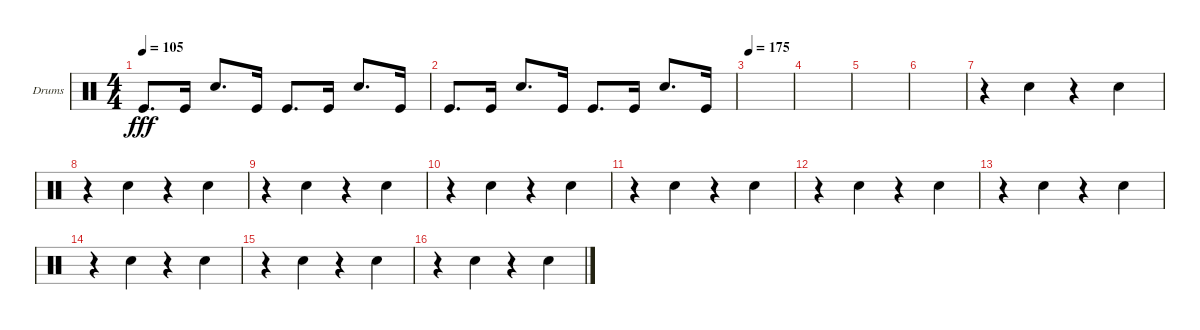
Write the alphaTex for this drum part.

\defaultSystemsLayout 4
\bracketExtendMode groupsimilarinstruments
\firstSystemTrackNameOrientation horizontal
\otherSystemsTrackNameOrientation horizontal
\track ("Helders" "Drums") {instrument percussion}
\staff {score}
\articulation defaults
\ts (4 4)
\tempo 105
\clef neutral
\ks c "Kick (hit)".8{d dy fff} "Kick (hit)".16 "Snare (hit) 2".8{d} "Kick (hit)".16 "Kick (hit)".8{d} "Kick (hit)".16 "Snare (hit) 2".8{d} "Kick (hit)".16
|
"Kick (hit)".8{d} "Kick (hit)".16 "Snare (hit) 2".8{d} "Kick (hit)".16 "Kick (hit)".8{d} "Kick (hit)".16 "Snare (hit) 2".8{d} "Kick (hit)".16 |
\tempo 175
|
|
|
|
r.4 "Snare (hit) 2".4 r.4 "Snare (hit) 2".4 |
r.4 "Snare (hit) 2".4 r.4 "Snare (hit) 2".4 |
r.4 "Snare (hit) 2".4 r.4 "Snare (hit) 2".4 |
r.4 "Snare (hit) 2".4 r.4 "Snare (hit) 2".4 |
r.4 "Snare (hit) 2".4 r.4 "Snare (hit) 2".4 |
r.4 "Snare (hit) 2".4 r.4 "Snare (hit) 2".4 |
r.4 "Snare (hit) 2".4 r.4 "Snare (hit) 2".4 |
r.4 "Snare (hit) 2".4 r.4 "Snare (hit) 2".4 |
r.4 "Snare (hit) 2".4 r.4 "Snare (hit) 2".4 |
r.4 "Snare (hit) 2".4 r.4 "Snare (hit) 2".4
